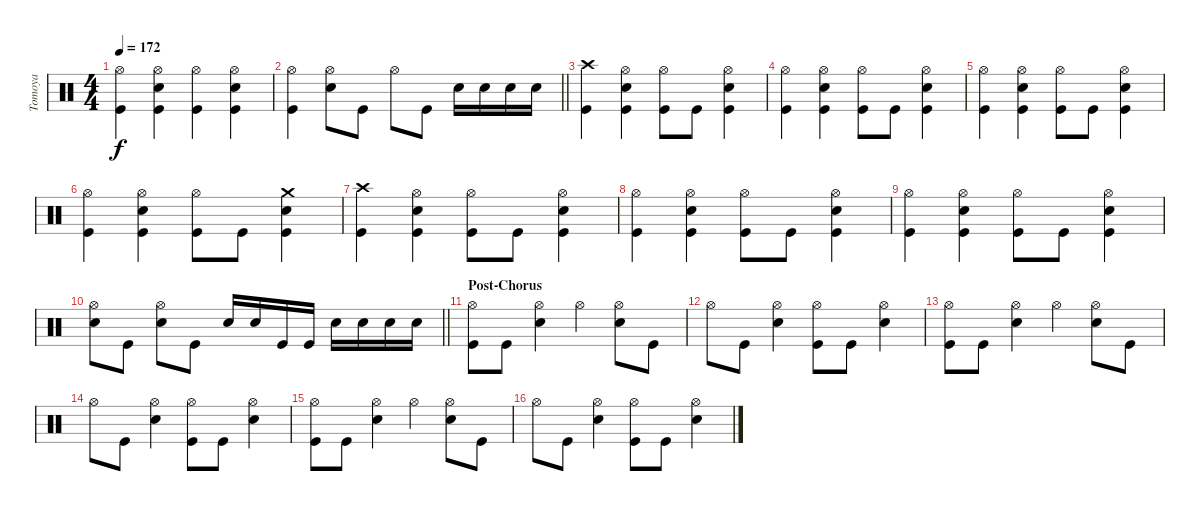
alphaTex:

\track ("Tomoya" "Tomoya") {instrument percussion}
\staff {score}
\articulation defaults
\ts (4 4)
\tempo 172
\clef neutral
\ks c
("Hi-Hat (open)" "Kick (hit)").4{dy f} ("Snare (hit) 2" "Hi-Hat (open)" "Kick (hit)").4 ("Hi-Hat (open)" "Kick (hit)").4 ("Snare (hit) 2" "Hi-Hat (open)" "Kick (hit)").4 |
\barLineRight lightlight
("Hi-Hat (open)" "Kick (hit)").4 ("Hi-Hat (open)" "Snare (hit) 2").8 "Kick (hit)".8 "Hi-Hat (open)".8 "Kick (hit)".8 "Snare (hit) 2".16 "Snare (hit) 2".16 "Snare (hit) 2".16 "Snare (hit) 2".16 |
\section ("" "")
("Crash high (hit)" "Kick (hit)").4 ("Snare (hit) 2" "Hi-Hat (open)" "Kick (hit)").4 ("Hi-Hat (open)" "Kick (hit)").8 "Kick (hit)".8 ("Snare (hit) 2" "Hi-Hat (open)" "Kick (hit)").4 |
("Hi-Hat (open)" "Kick (hit)").4 ("Snare (hit) 2" "Hi-Hat (open)" "Kick (hit)").4 ("Hi-Hat (open)" "Kick (hit)").8 "Kick (hit)".8 ("Snare (hit) 2" "Hi-Hat (open)" "Kick (hit)").4 |
("Hi-Hat (open)" "Kick (hit)").4 ("Snare (hit) 2" "Hi-Hat (open)" "Kick (hit)").4 ("Hi-Hat (open)" "Kick (hit)").8 "Kick (hit)".8 ("Snare (hit) 2" "Hi-Hat (open)" "Kick (hit)").4 |
("Hi-Hat (open)" "Kick (hit)").4 ("Snare (hit) 2" "Hi-Hat (open)" "Kick (hit)").4 ("Hi-Hat (open)" "Kick (hit)").8 "Kick (hit)".8 ("Snare (hit) 2" "Crash medium (hit)" "Kick (hit)").4 |
("Crash high (hit)" "Kick (hit)").4 ("Snare (hit) 2" "Hi-Hat (open)" "Kick (hit)").4 ("Hi-Hat (open)" "Kick (hit)").8 "Kick (hit)".8 ("Snare (hit) 2" "Hi-Hat (open)" "Kick (hit)").4 |
("Hi-Hat (open)" "Kick (hit)").4 ("Snare (hit) 2" "Hi-Hat (open)" "Kick (hit)").4 ("Hi-Hat (open)" "Kick (hit)").8 "Kick (hit)".8 ("Snare (hit) 2" "Hi-Hat (open)" "Kick (hit)").4 |
("Hi-Hat (open)" "Kick (hit)").4 ("Snare (hit) 2" "Hi-Hat (open)" "Kick (hit)").4 ("Hi-Hat (open)" "Kick (hit)").8 "Kick (hit)".8 ("Snare (hit) 2" "Hi-Hat (open)" "Kick (hit)").4 |
\barLineRight lightlight
("Hi-Hat (open)" "Snare (hit) 2").8 "Kick (hit)".8 ("Hi-Hat (open)" "Snare (hit) 2").8 "Kick (hit)".8 "Snare (hit) 2".16 "Snare (hit) 2".16 "Kick (hit)".16 "Kick (hit)".16 "Snare (hit) 2".16 "Snare (hit) 2".16 "Snare (hit) 2".16 "Snare (hit) 2".16 |
\section ("" "Post-Chorus")
("Hi-Hat (open)" "Kick (hit)").8 "Kick (hit)".8 ("Hi-Hat (open)" "Snare (hit) 2").4 "Hi-Hat (open)".4 ("Hi-Hat (open)" "Snare (hit) 2").8 "Kick (hit)".8 |
"Hi-Hat (open)".8 "Kick (hit)".8 ("Hi-Hat (open)" "Snare (hit) 2").4 ("Hi-Hat (open)" "Kick (hit)").8 "Kick (hit)".8 ("Hi-Hat (open)" "Snare (hit) 2").4 |
("Hi-Hat (open)" "Kick (hit)").8 "Kick (hit)".8 ("Hi-Hat (open)" "Snare (hit) 2").4 "Hi-Hat (open)".4 ("Hi-Hat (open)" "Snare (hit) 2").8 "Kick (hit)".8 |
"Hi-Hat (open)".8 "Kick (hit)".8 ("Hi-Hat (open)" "Snare (hit) 2").4 ("Hi-Hat (open)" "Kick (hit)").8 "Kick (hit)".8 ("Hi-Hat (open)" "Snare (hit) 2").4 |
("Hi-Hat (open)" "Kick (hit)").8 "Kick (hit)".8 ("Hi-Hat (open)" "Snare (hit) 2").4 "Hi-Hat (open)".4 ("Hi-Hat (open)" "Snare (hit) 2").8 "Kick (hit)".8 |
"Hi-Hat (open)".8 "Kick (hit)".8 ("Hi-Hat (open)" "Snare (hit) 2").4 ("Hi-Hat (open)" "Kick (hit)").8 "Kick (hit)".8 ("Hi-Hat (open)" "Snare (hit) 2").4
